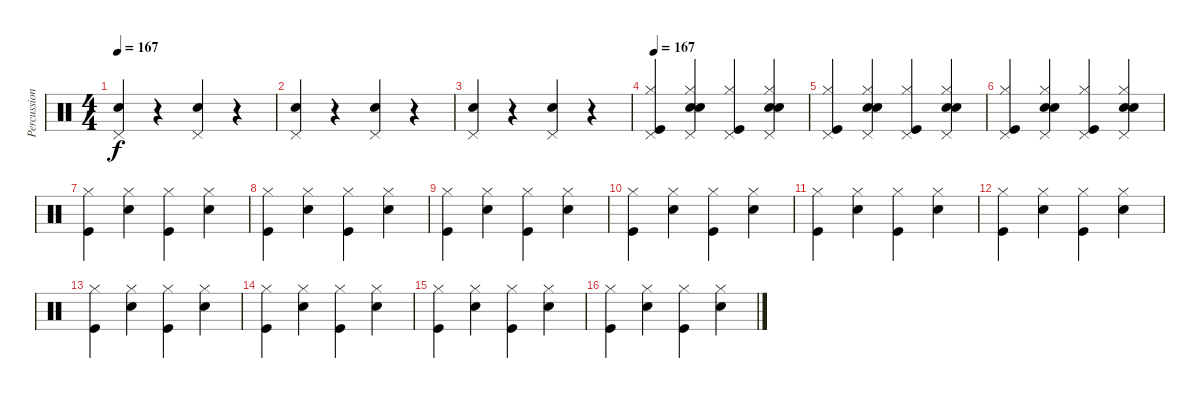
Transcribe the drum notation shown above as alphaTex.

\track ("Percussion" "Percussion") {instrument percussion}
\staff {score}
\articulation defaults
\ts (4 4)
\tempo 167
\clef neutral
\ks c
("Pedal Hi-Hat (hit)" "Hand Clap (hit)").4{dy f} r.4 ("Pedal Hi-Hat (hit)" "Hand Clap (hit)").4 r.4 |
("Pedal Hi-Hat (hit)" "Hand Clap (hit)").4 r.4 ("Pedal Hi-Hat (hit)" "Hand Clap (hit)").4 r.4 |
("Pedal Hi-Hat (hit)" "Hand Clap (hit)").4 r.4 ("Pedal Hi-Hat (hit)" "Hand Clap (hit)").4 r.4 |
\tempo 167
("Pedal Hi-Hat (hit)" "Hi-Hat (closed)" "Kick (hit)").4 ("Pedal Hi-Hat (hit)" "Hand Clap (hit)" "Hi-Hat (closed)" "Electric Snare (hit)").4 ("Pedal Hi-Hat (hit)" "Hi-Hat (closed)" "Kick (hit)").4 ("Pedal Hi-Hat (hit)" "Hand Clap (hit)" "Hi-Hat (closed)" "Electric Snare (hit)").4 |
("Pedal Hi-Hat (hit)" "Hi-Hat (closed)" "Kick (hit)").4 ("Pedal Hi-Hat (hit)" "Hand Clap (hit)" "Hi-Hat (closed)" "Electric Snare (hit)").4 ("Pedal Hi-Hat (hit)" "Hi-Hat (closed)" "Kick (hit)").4 ("Pedal Hi-Hat (hit)" "Hand Clap (hit)" "Hi-Hat (closed)" "Electric Snare (hit)").4 |
("Pedal Hi-Hat (hit)" "Hi-Hat (closed)" "Kick (hit)").4 ("Pedal Hi-Hat (hit)" "Hand Clap (hit)" "Hi-Hat (closed)" "Electric Snare (hit)").4 ("Pedal Hi-Hat (hit)" "Hi-Hat (closed)" "Kick (hit)").4 ("Pedal Hi-Hat (hit)" "Hand Clap (hit)" "Hi-Hat (closed)" "Electric Snare (hit)").4 |
("Hi-Hat (closed)" "Kick (hit)").4 ("Hi-Hat (closed)" "Electric Snare (hit)").4 ("Hi-Hat (closed)" "Kick (hit)").4 ("Hi-Hat (closed)" "Electric Snare (hit)").4 |
("Hi-Hat (closed)" "Kick (hit)").4 ("Hi-Hat (closed)" "Electric Snare (hit)").4 ("Hi-Hat (closed)" "Kick (hit)").4 ("Hi-Hat (closed)" "Electric Snare (hit)").4 |
("Hi-Hat (closed)" "Kick (hit)").4 ("Hi-Hat (closed)" "Electric Snare (hit)").4 ("Hi-Hat (closed)" "Kick (hit)").4 ("Hi-Hat (closed)" "Electric Snare (hit)").4 |
("Hi-Hat (closed)" "Kick (hit)").4 ("Hi-Hat (closed)" "Electric Snare (hit)").4 ("Hi-Hat (closed)" "Kick (hit)").4 ("Hi-Hat (closed)" "Electric Snare (hit)").4 |
("Hi-Hat (closed)" "Kick (hit)").4 ("Hi-Hat (closed)" "Electric Snare (hit)").4 ("Hi-Hat (closed)" "Kick (hit)").4 ("Hi-Hat (closed)" "Electric Snare (hit)").4 |
("Hi-Hat (closed)" "Kick (hit)").4 ("Hi-Hat (closed)" "Electric Snare (hit)").4 ("Hi-Hat (closed)" "Kick (hit)").4 ("Hi-Hat (closed)" "Electric Snare (hit)").4 |
("Hi-Hat (closed)" "Kick (hit)").4 ("Hi-Hat (closed)" "Electric Snare (hit)").4 ("Hi-Hat (closed)" "Kick (hit)").4 ("Hi-Hat (closed)" "Electric Snare (hit)").4 |
("Hi-Hat (closed)" "Kick (hit)").4 ("Hi-Hat (closed)" "Electric Snare (hit)").4 ("Hi-Hat (closed)" "Kick (hit)").4 ("Hi-Hat (closed)" "Electric Snare (hit)").4 |
("Hi-Hat (closed)" "Kick (hit)").4 ("Hi-Hat (closed)" "Electric Snare (hit)").4 ("Hi-Hat (closed)" "Kick (hit)").4 ("Hi-Hat (closed)" "Electric Snare (hit)").4 |
("Hi-Hat (closed)" "Kick (hit)").4 ("Hi-Hat (closed)" "Electric Snare (hit)").4 ("Hi-Hat (closed)" "Kick (hit)").4 ("Hi-Hat (closed)" "Electric Snare (hit)").4
